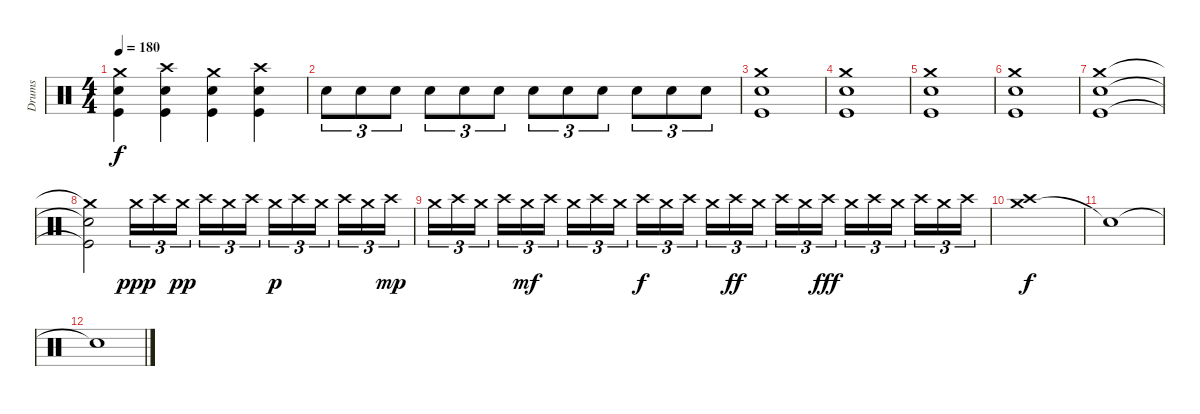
\track ("Drums" "Drums") {instrument percussion}
\staff {score}
\articulation defaults
\ts (4 4)
\tempo 180
\clef neutral
\ks c
("Crash medium (hit)" "Snare (hit) 2" "Kick (hit)").4{dy f} ("Crash high (hit)" "Snare (hit) 2" "Kick (hit)").4 ("Crash medium (hit)" "Snare (hit) 2" "Kick (hit)").4 ("Crash high (hit)" "Snare (hit) 2" "Kick (hit)").4 |
"Snare (hit) 2".8{tu (3 2)} "Snare (hit) 2".8{tu (3 2)} "Snare (hit) 2".8{tu (3 2)} "Snare (hit) 2".8{tu (3 2)} "Snare (hit) 2".8{tu (3 2)} "Snare (hit) 2".8{tu (3 2)} "Snare (hit) 2".8{tu (3 2)} "Snare (hit) 2".8{tu (3 2)} "Snare (hit) 2".8{tu (3 2)} "Snare (hit) 2".8{tu (3 2)} "Snare (hit) 2".8{tu (3 2)} "Snare (hit) 2".8{tu (3 2)} |
("Crash medium (hit)" "Snare (hit) 2" "Kick (hit)").1 |
("Crash medium (hit)" "Snare (hit) 2" "Kick (hit)").1 |
("Crash medium (hit)" "Snare (hit) 2" "Kick (hit)").1 |
("Crash medium (hit)" "Snare (hit) 2" "Kick (hit)").1 |
("Crash medium (hit)" "Snare (hit) 2" "Kick (hit)").1 |
("Crash medium (hit)"{t} "Snare (hit) 2"{t} "Kick (hit)"{t}).2 "Crash medium (hit)".16{tu (3 2) dy ppp} "Crash high (hit)".16{tu (3 2)} "Crash medium (hit)".16{tu (3 2) dy pp} "Crash high (hit)".16{tu (3 2)} "Crash medium (hit)".16{tu (3 2)} "Crash high (hit)".16{tu (3 2)} "Crash medium (hit)".16{tu (3 2) dy p} "Crash high (hit)".16{tu (3 2)} "Crash medium (hit)".16{tu (3 2)} "Crash high (hit)".16{tu (3 2)} "Crash medium (hit)".16{tu (3 2)} "Crash high (hit)".16{tu (3 2) dy mp} |
"Crash medium (hit)".16{tu (3 2)} "Crash high (hit)".16{tu (3 2)} "Crash medium (hit)".16{tu (3 2)} "Crash high (hit)".16{tu (3 2)} "Crash medium (hit)".16{tu (3 2) dy mf} "Crash high (hit)".16{tu (3 2)} "Crash medium (hit)".16{tu (3 2)} "Crash high (hit)".16{tu (3 2)} "Crash medium (hit)".16{tu (3 2)} "Crash high (hit)".16{tu (3 2) dy f} "Crash medium (hit)".16{tu (3 2)} "Crash high (hit)".16{tu (3 2)} "Crash medium (hit)".16{tu (3 2)} "Crash high (hit)".16{tu (3 2) dy ff} "Crash medium (hit)".16{tu (3 2)} "Crash high (hit)".16{tu (3 2)} "Crash medium (hit)".16{tu (3 2)} "Crash high (hit)".16{tu (3 2) dy fff} "Crash medium (hit)".16{tu (3 2)} "Crash high (hit)".16{tu (3 2)} "Crash medium (hit)".16{tu (3 2)} "Crash high (hit)".16{tu (3 2)} "Crash medium (hit)".16{tu (3 2)} "Crash high (hit)".16{tu (3 2)} |
("Crash medium (hit)" "Crash high (hit)").1{dy f} |
"Snare (hit)"{t}.1 |
"Snare (hit)"{t}.1
